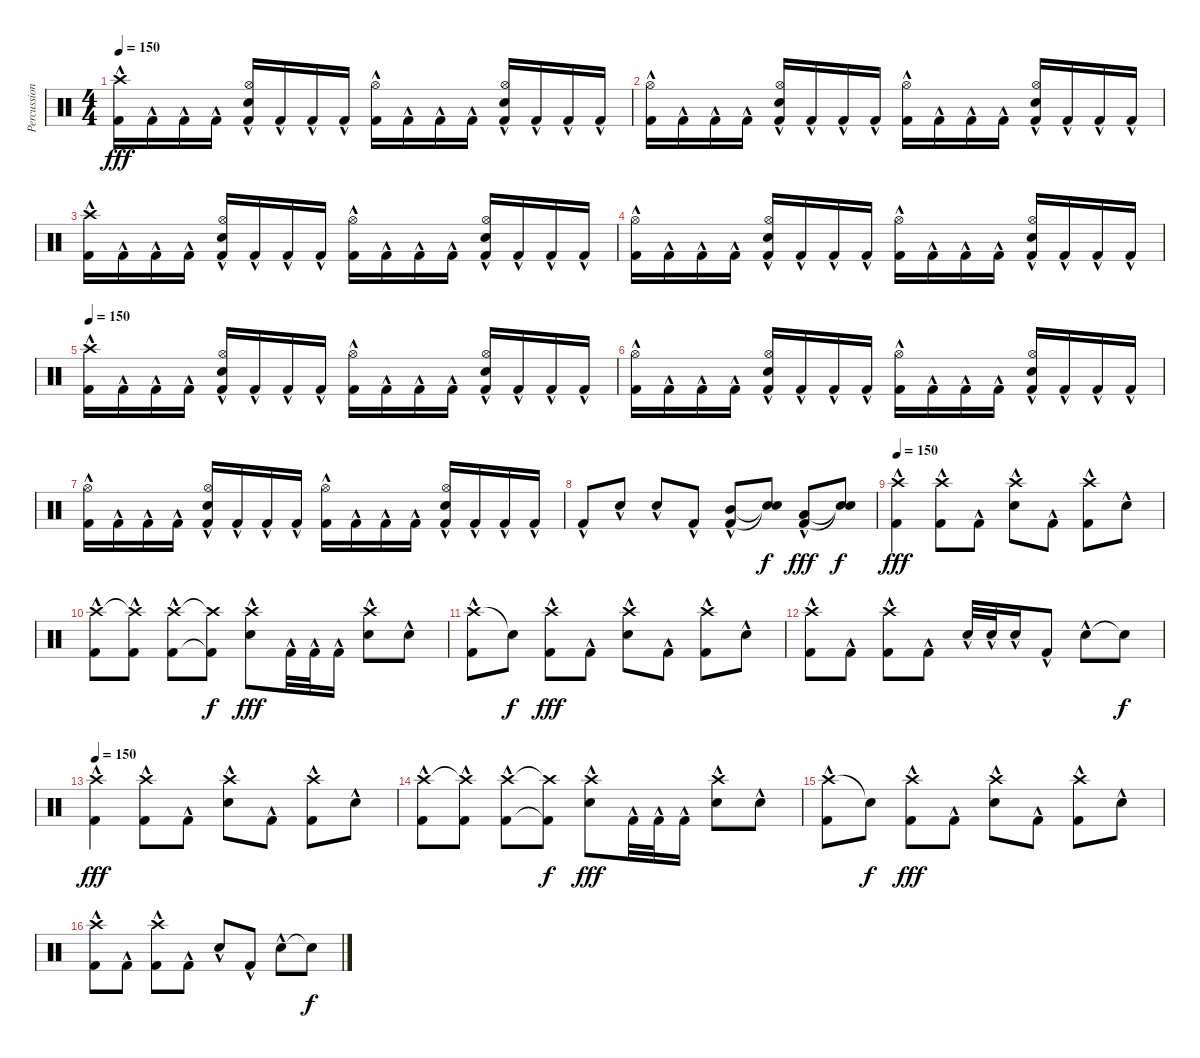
\track ("Percussion" "Percussion") {instrument percussion}
\staff {score}
\articulation defaults
\ts (4 4)
\tempo 150
\clef neutral
\ks c
("Crash high (hit)" "Kick (hit) 2"{hac}).16{dy fff} "Kick (hit) 2"{hac}.16 "Kick (hit) 2"{hac}.16 "Kick (hit) 2"{hac}.16 ("Hi-Hat (open)"{hac} "Electric Snare (hit)"{hac} "Kick (hit) 2"{hac}).16 "Kick (hit) 2"{hac}.16 "Kick (hit) 2"{hac}.16 "Kick (hit) 2"{hac}.16 ("Hi-Hat (open)"{hac} "Kick (hit) 2"{hac}).16 "Kick (hit) 2"{hac}.16 "Kick (hit) 2"{hac}.16 "Kick (hit) 2"{hac}.16 ("Hi-Hat (open)"{hac} "Electric Snare (hit)"{hac} "Kick (hit) 2"{hac}).16 "Kick (hit) 2"{hac}.16 "Kick (hit) 2"{hac}.16 "Kick (hit) 2"{hac}.16 |
("Hi-Hat (open)" "Kick (hit) 2"{hac}).16 "Kick (hit) 2"{hac}.16 "Kick (hit) 2"{hac}.16 "Kick (hit) 2"{hac}.16 ("Hi-Hat (open)"{hac} "Electric Snare (hit)"{hac} "Kick (hit) 2"{hac}).16 "Kick (hit) 2"{hac}.16 "Kick (hit) 2"{hac}.16 "Kick (hit) 2"{hac}.16 ("Hi-Hat (open)"{hac} "Kick (hit) 2"{hac}).16 "Kick (hit) 2"{hac}.16 "Kick (hit) 2"{hac}.16 "Kick (hit) 2"{hac}.16 ("Hi-Hat (open)"{hac} "Electric Snare (hit)"{hac} "Kick (hit) 2"{hac}).16 "Kick (hit) 2"{hac}.16 "Kick (hit) 2"{hac}.16 "Kick (hit) 2"{hac}.16 |
("Crash high (hit)" "Kick (hit) 2"{hac}).16 "Kick (hit) 2"{hac}.16 "Kick (hit) 2"{hac}.16 "Kick (hit) 2"{hac}.16 ("Hi-Hat (open)"{hac} "Electric Snare (hit)"{hac} "Kick (hit) 2"{hac}).16 "Kick (hit) 2"{hac}.16 "Kick (hit) 2"{hac}.16 "Kick (hit) 2"{hac}.16 ("Hi-Hat (open)"{hac} "Kick (hit) 2"{hac}).16 "Kick (hit) 2"{hac}.16 "Kick (hit) 2"{hac}.16 "Kick (hit) 2"{hac}.16 ("Hi-Hat (open)"{hac} "Electric Snare (hit)"{hac} "Kick (hit) 2"{hac}).16 "Kick (hit) 2"{hac}.16 "Kick (hit) 2"{hac}.16 "Kick (hit) 2"{hac}.16 |
("Hi-Hat (open)" "Kick (hit) 2"{hac}).16 "Kick (hit) 2"{hac}.16 "Kick (hit) 2"{hac}.16 "Kick (hit) 2"{hac}.16 ("Hi-Hat (open)"{hac} "Electric Snare (hit)"{hac} "Kick (hit) 2"{hac}).16 "Kick (hit) 2"{hac}.16 "Kick (hit) 2"{hac}.16 "Kick (hit) 2"{hac}.16 ("Hi-Hat (open)"{hac} "Kick (hit) 2"{hac}).16 "Kick (hit) 2"{hac}.16 "Kick (hit) 2"{hac}.16 "Kick (hit) 2"{hac}.16 ("Hi-Hat (open)"{hac} "Electric Snare (hit)"{hac} "Kick (hit) 2"{hac}).16 "Kick (hit) 2"{hac}.16 "Kick (hit) 2"{hac}.16 "Kick (hit) 2"{hac}.16 |
\tempo 150
("Crash high (hit)" "Kick (hit) 2"{hac}).16 "Kick (hit) 2"{hac}.16 "Kick (hit) 2"{hac}.16 "Kick (hit) 2"{hac}.16 ("Hi-Hat (open)"{hac} "Electric Snare (hit)"{hac} "Kick (hit) 2"{hac}).16 "Kick (hit) 2"{hac}.16 "Kick (hit) 2"{hac}.16 "Kick (hit) 2"{hac}.16 ("Hi-Hat (open)"{hac} "Kick (hit) 2"{hac}).16 "Kick (hit) 2"{hac}.16 "Kick (hit) 2"{hac}.16 "Kick (hit) 2"{hac}.16 ("Hi-Hat (open)"{hac} "Electric Snare (hit)"{hac} "Kick (hit) 2"{hac}).16 "Kick (hit) 2"{hac}.16 "Kick (hit) 2"{hac}.16 "Kick (hit) 2"{hac}.16 |
("Hi-Hat (open)" "Kick (hit) 2"{hac}).16 "Kick (hit) 2"{hac}.16 "Kick (hit) 2"{hac}.16 "Kick (hit) 2"{hac}.16 ("Hi-Hat (open)"{hac} "Electric Snare (hit)"{hac} "Kick (hit) 2"{hac}).16 "Kick (hit) 2"{hac}.16 "Kick (hit) 2"{hac}.16 "Kick (hit) 2"{hac}.16 ("Hi-Hat (open)"{hac} "Kick (hit) 2"{hac}).16 "Kick (hit) 2"{hac}.16 "Kick (hit) 2"{hac}.16 "Kick (hit) 2"{hac}.16 ("Hi-Hat (open)"{hac} "Electric Snare (hit)"{hac} "Kick (hit) 2"{hac}).16 "Kick (hit) 2"{hac}.16 "Kick (hit) 2"{hac}.16 "Kick (hit) 2"{hac}.16 |
("Hi-Hat (open)" "Kick (hit) 2"{hac}).16 "Kick (hit) 2"{hac}.16 "Kick (hit) 2"{hac}.16 "Kick (hit) 2"{hac}.16 ("Hi-Hat (open)"{hac} "Electric Snare (hit)"{hac} "Kick (hit) 2"{hac}).16 "Kick (hit) 2"{hac}.16 "Kick (hit) 2"{hac}.16 "Kick (hit) 2"{hac}.16 ("Hi-Hat (open)"{hac} "Kick (hit) 2"{hac}).16 "Kick (hit) 2"{hac}.16 "Kick (hit) 2"{hac}.16 "Kick (hit) 2"{hac}.16 ("Hi-Hat (open)"{hac} "Electric Snare (hit)"{hac} "Kick (hit) 2"{hac}).16 "Kick (hit) 2"{hac}.16 "Kick (hit) 2"{hac}.16 "Kick (hit) 2"{hac}.16 |
"Kick (hit) 2"{hac}.8 "Electric Snare (hit)"{hac}.8 "Electric Snare (hit)"{hac}.8 "Kick (hit) 2"{hac}.8 ("Mid Tom (hit)"{hac} "Kick (hit) 2"{hac}).8 ("Snare (hit)"{t} "Snare (hit)"{t}).8{dy f} ("Low Tom (hit)"{hac} "Kick (hit) 2"{hac}).8{dy fff} ("Snare (hit)"{t} "Snare (hit)"{t}).8{dy f} |
\tempo 150
("Crash high (hit)" "Kick (hit) 2"{hac}).4{dy fff} ("Crash high (hit)" "Kick (hit) 2"{hac}).8 "Kick (hit) 2"{hac}.8 ("Crash high (hit)" "Electric Snare (hit)"{hac}).8 "Kick (hit) 2"{hac}.8 ("Crash high (hit)" "Kick (hit) 2"{hac}).8 "Electric Snare (hit)"{hac}.8 |
("Crash high (hit)" "Kick (hit) 2"{hac}).8 ("Crash high (hit)"{t} "Kick (hit) 2"{hac}).8 ("Crash high (hit)" "Kick (hit) 2"{hac}).8 ("Crash high (hit)"{t} "Kick (hit) 2"{t}).8{dy f} ("Crash high (hit)" "Electric Snare (hit)"{hac}).8{dy fff} "Kick (hit) 2"{hac}.32 "Kick (hit) 2"{hac}.32 "Kick (hit) 2"{hac}.16 ("Crash high (hit)" "Electric Snare (hit)"{hac}).8 "Electric Snare (hit)"{hac}.8 |
("Crash high (hit)" "Kick (hit) 2"{hac}).8 "Snare (hit)"{t}.8{dy f} ("Crash high (hit)" "Kick (hit) 2"{hac}).8{dy fff} "Kick (hit) 2"{hac}.8 ("Crash high (hit)" "Electric Snare (hit)"{hac}).8 "Kick (hit) 2"{hac}.8 ("Crash high (hit)" "Kick (hit) 2"{hac}).8 "Electric Snare (hit)"{hac}.8 |
("Crash high (hit)" "Kick (hit) 2"{hac}).8 "Kick (hit) 2"{hac}.8 ("Crash high (hit)" "Kick (hit) 2"{hac}).8 "Kick (hit) 2"{hac}.8 "Electric Snare (hit)"{hac}.32 "Electric Snare (hit)"{hac}.32 "Electric Snare (hit)"{hac}.16 "Kick (hit) 2"{hac}.8 "Electric Snare (hit)"{hac}.8 "Snare (hit)"{t}.8{dy f} |
\tempo 150
("Crash high (hit)" "Kick (hit) 2"{hac}).4{dy fff} ("Crash high (hit)" "Kick (hit) 2"{hac}).8 "Kick (hit) 2"{hac}.8 ("Crash high (hit)" "Electric Snare (hit)"{hac}).8 "Kick (hit) 2"{hac}.8 ("Crash high (hit)" "Kick (hit) 2"{hac}).8 "Electric Snare (hit)"{hac}.8 |
("Crash high (hit)" "Kick (hit) 2"{hac}).8 ("Crash high (hit)"{t} "Kick (hit) 2"{hac}).8 ("Crash high (hit)" "Kick (hit) 2"{hac}).8 ("Crash high (hit)"{t} "Kick (hit) 2"{t}).8{dy f} ("Crash high (hit)" "Electric Snare (hit)"{hac}).8{dy fff} "Kick (hit) 2"{hac}.32 "Kick (hit) 2"{hac}.32 "Kick (hit) 2"{hac}.16 ("Crash high (hit)" "Electric Snare (hit)"{hac}).8 "Electric Snare (hit)"{hac}.8 |
("Crash high (hit)" "Kick (hit) 2"{hac}).8 "Snare (hit)"{t}.8{dy f} ("Crash high (hit)" "Kick (hit) 2"{hac}).8{dy fff} "Kick (hit) 2"{hac}.8 ("Crash high (hit)" "Electric Snare (hit)"{hac}).8 "Kick (hit) 2"{hac}.8 ("Crash high (hit)" "Kick (hit) 2"{hac}).8 "Electric Snare (hit)"{hac}.8 |
("Crash high (hit)" "Kick (hit) 2"{hac}).8 "Kick (hit) 2"{hac}.8 ("Crash high (hit)" "Kick (hit) 2"{hac}).8 "Kick (hit) 2"{hac}.8 "Electric Snare (hit)"{hac}.8 "Kick (hit) 2"{hac}.8 "Electric Snare (hit)"{hac}.8 "Snare (hit)"{t}.8{dy f}
